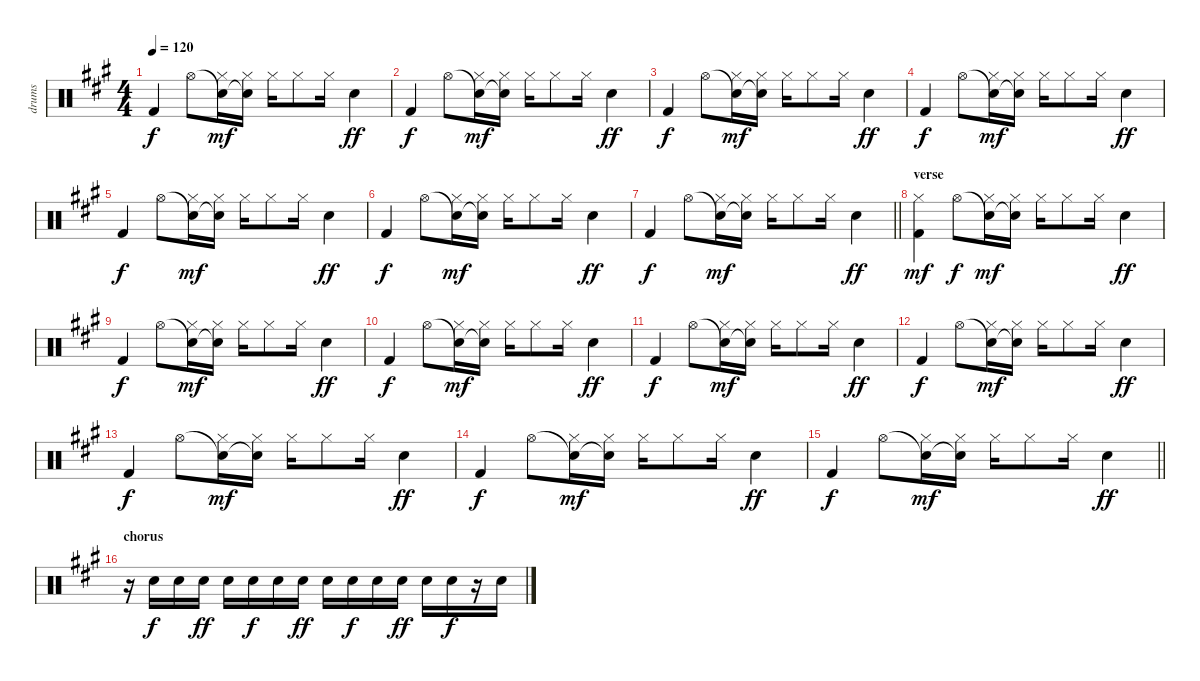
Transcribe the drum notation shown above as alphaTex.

\track ("drums" "drums") {instrument percussion}
\staff {score}
\articulation defaults
\ts (4 4)
\tempo 120
\clef neutral
\ks a "Kick (hit) 2".4{dy f} "Hi-Hat (open)".8
("Snare (hit)"{t} "Hi-Hat (closed)").16{dy mf} ("Snare (hit)"{t} "Hi-Hat (closed)").16 "Hi-Hat (closed)".16 "Hi-Hat (closed)".8 "Hi-Hat (closed)".16 "Electric Snare (hit)".4{dy ff} |
"Kick (hit) 2".4{dy f} "Hi-Hat (open)".8 ("Snare (hit)"{t} "Hi-Hat (closed)").16{dy mf} ("Snare (hit)"{t} "Hi-Hat (closed)").16 "Hi-Hat (closed)".16 "Hi-Hat (closed)".8 "Hi-Hat (closed)".16 "Electric Snare (hit)".4{dy ff} |
"Kick (hit) 2".4{dy f} "Hi-Hat (open)".8 ("Snare (hit)"{t} "Hi-Hat (closed)").16{dy mf} ("Snare (hit)"{t} "Hi-Hat (closed)").16 "Hi-Hat (closed)".16 "Hi-Hat (closed)".8 "Hi-Hat (closed)".16 "Electric Snare (hit)".4{dy ff} |
"Kick (hit) 2".4{dy f} "Hi-Hat (open)".8 ("Snare (hit)"{t} "Hi-Hat (closed)").16{dy mf} ("Snare (hit)"{t} "Hi-Hat (closed)").16 "Hi-Hat (closed)".16 "Hi-Hat (closed)".8 "Hi-Hat (closed)".16 "Electric Snare (hit)".4{dy ff} |
"Kick (hit) 2".4{dy f} "Hi-Hat (open)".8 ("Snare (hit)"{t} "Hi-Hat (closed)").16{dy mf} ("Snare (hit)"{t} "Hi-Hat (closed)").16 "Hi-Hat (closed)".16 "Hi-Hat (closed)".8 "Hi-Hat (closed)".16 "Electric Snare (hit)".4{dy ff} |
"Kick (hit) 2".4{dy f} "Hi-Hat (open)".8 ("Snare (hit)"{t} "Hi-Hat (closed)").16{dy mf} ("Snare (hit)"{t} "Hi-Hat (closed)").16 "Hi-Hat (closed)".16 "Hi-Hat (closed)".8 "Hi-Hat (closed)".16 "Electric Snare (hit)".4{dy ff} |
\barLineRight lightlight "Kick (hit) 2".4{dy f} "Hi-Hat (open)".8
("Snare (hit)"{t} "Hi-Hat (closed)").16{dy mf} ("Snare (hit)"{t} "Hi-Hat (closed)").16 "Hi-Hat (closed)".16 "Hi-Hat (closed)".8 "Hi-Hat (closed)".16 "Electric Snare (hit)".4{dy ff} |
\section ("" "verse")
("Hi-Hat (closed)" "Kick (hit) 2").4{dy mf} "Hi-Hat (open)".8{dy f} ("Snare (hit)"{t} "Hi-Hat (closed)").16{dy mf} ("Snare (hit)"{t} "Hi-Hat (closed)").16 "Hi-Hat (closed)".16 "Hi-Hat (closed)".8 "Hi-Hat (closed)".16 "Electric Snare (hit)".4{dy ff} |
"Kick (hit) 2".4{dy f} "Hi-Hat (open)".8 ("Snare (hit)"{t} "Hi-Hat (closed)").16{dy mf} ("Snare (hit)"{t} "Hi-Hat (closed)").16 "Hi-Hat (closed)".16 "Hi-Hat (closed)".8 "Hi-Hat (closed)".16 "Electric Snare (hit)".4{dy ff} |
"Kick (hit) 2".4{dy f} "Hi-Hat (open)".8 ("Snare (hit)"{t} "Hi-Hat (closed)").16{dy mf} ("Snare (hit)"{t} "Hi-Hat (closed)").16 "Hi-Hat (closed)".16 "Hi-Hat (closed)".8 "Hi-Hat (closed)".16 "Electric Snare (hit)".4{dy ff} |
"Kick (hit) 2".4{dy f} "Hi-Hat (open)".8 ("Snare (hit)"{t} "Hi-Hat (closed)").16{dy mf} ("Snare (hit)"{t} "Hi-Hat (closed)").16 "Hi-Hat (closed)".16 "Hi-Hat (closed)".8 "Hi-Hat (closed)".16 "Electric Snare (hit)".4{dy ff} |
"Kick (hit) 2".4{dy f} "Hi-Hat (open)".8 ("Snare (hit)"{t} "Hi-Hat (closed)").16{dy mf} ("Snare (hit)"{t} "Hi-Hat (closed)").16 "Hi-Hat (closed)".16 "Hi-Hat (closed)".8 "Hi-Hat (closed)".16 "Electric Snare (hit)".4{dy ff} |
"Kick (hit) 2".4{dy f} "Hi-Hat (open)".8 ("Snare (hit)"{t} "Hi-Hat (closed)").16{dy mf} ("Snare (hit)"{t} "Hi-Hat (closed)").16 "Hi-Hat (closed)".16 "Hi-Hat (closed)".8 "Hi-Hat (closed)".16 "Electric Snare (hit)".4{dy ff} |
"Kick (hit) 2".4{dy f} "Hi-Hat (open)".8 ("Snare (hit)"{t} "Hi-Hat (closed)").16{dy mf} ("Snare (hit)"{t} "Hi-Hat (closed)").16 "Hi-Hat (closed)".16 "Hi-Hat (closed)".8 "Hi-Hat (closed)".16 "Electric Snare (hit)".4{dy ff} |
\barLineRight lightlight "Kick (hit) 2".4{dy f} "Hi-Hat (open)".8
("Snare (hit)"{t} "Hi-Hat (closed)").16{dy mf} ("Snare (hit)"{t} "Hi-Hat (closed)").16 "Hi-Hat (closed)".16 "Hi-Hat (closed)".8 "Hi-Hat (closed)".16 "Electric Snare (hit)".4{dy ff} |
\section ("" "chorus")
r.16 "Electric Snare (hit)".16{dy f} "Electric Snare (hit)".16 "Electric Snare (hit)".16{dy ff} "Electric Snare (hit)".16 "Electric Snare (hit)".16{dy f} "Electric Snare (hit)".16 "Electric Snare (hit)".16{dy ff} "Electric Snare (hit)".16 "Electric Snare (hit)".16{dy f} "Electric Snare (hit)".16 "Electric Snare (hit)".16{dy ff} "Electric Snare (hit)".16 "Electric Snare (hit)".16{dy f} r.16 "Electric Snare (hit)".16
